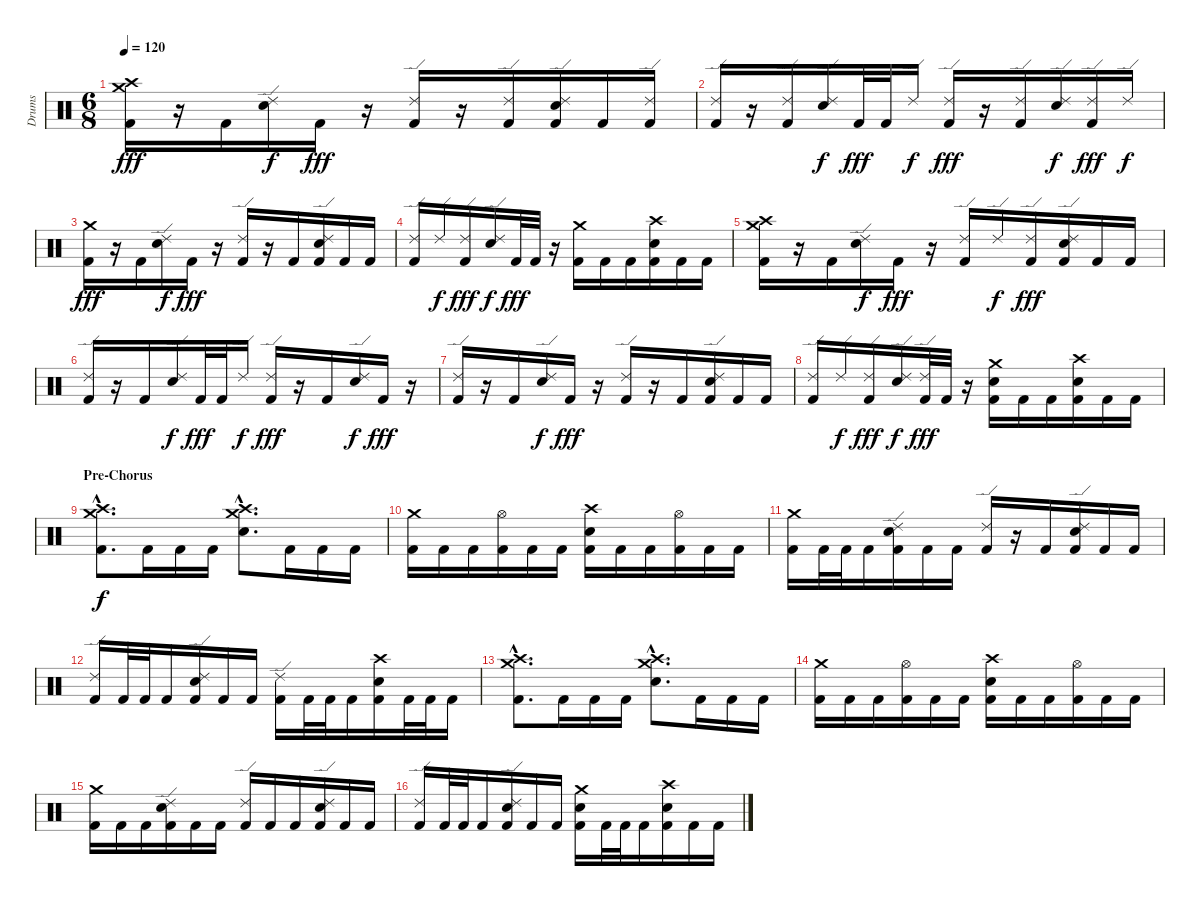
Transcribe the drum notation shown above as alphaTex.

\track ("Drums" "Drums") {instrument percussion}
\staff {score}
\articulation defaults
\ts (6 8)
\tempo 120
\clef neutral
\ks c
("Crash medium (hit)" "Crash high (hit)" "Kick (hit) 2").16{dy fff} r.16 "Kick (hit) 2".16 ("Ride (edge) 2" "Snare (hit) 2").16{dy f} "Kick (hit) 2".16{dy fff} r.16 ("Ride (edge) 2" "Kick (hit) 2").16 r.16 ("Ride (edge) 2" "Kick (hit) 2").16 ("Ride (edge) 2" "Snare (hit) 2" "Kick (hit) 2").16 "Kick (hit) 2".16 ("Ride (edge) 2" "Kick (hit) 2").16 |
("Ride (edge) 2" "Kick (hit) 2").16 r.16 ("Ride (edge) 2" "Kick (hit) 2").16 ("Ride (edge) 2" "Snare (hit) 2").16{dy f} "Kick (hit) 2".32{dy fff} "Kick (hit) 2".32 "Ride (edge) 2".16{dy f} ("Ride (edge) 2" "Kick (hit) 2").16{dy fff} r.16 ("Ride (edge) 2" "Kick (hit) 2").16 ("Ride (edge) 2" "Snare (hit) 2").16{dy f} ("Ride (edge) 2" "Kick (hit) 2").16{dy fff} "Ride (edge) 2".16{dy f} |
("Crash medium (hit)" "Kick (hit) 2").16{dy fff} r.16 "Kick (hit) 2".16 ("Ride (edge) 2" "Snare (hit) 2").16{dy f} "Kick (hit) 2".16{dy fff} r.16 ("Ride (edge) 2" "Kick (hit) 2").16 r.16 "Kick (hit) 2".16 ("Ride (edge) 2" "Snare (hit) 2" "Kick (hit) 2").16 "Kick (hit) 2".16 "Kick (hit) 2".16 |
("Ride (edge) 2" "Kick (hit) 2").16 "Ride (edge) 2".16{dy f} ("Ride (edge) 2" "Kick (hit) 2").16{dy fff} ("Ride (edge) 2" "Snare (hit) 2").16{dy f} "Kick (hit) 2".32{dy fff} "Kick (hit) 2".32 r.16 ("Crash medium (hit)" "Kick (hit) 2").16 "Kick (hit) 2".16 "Kick (hit) 2".16 ("Crash high (hit)" "Snare (hit) 2" "Kick (hit) 2").16 "Kick (hit) 2".16 "Kick (hit) 2".16 |
("Crash medium (hit)" "Crash high (hit)" "Kick (hit) 2").16 r.16 "Kick (hit) 2".16 ("Ride (edge) 2" "Snare (hit) 2").16{dy f} "Kick (hit) 2".16{dy fff} r.16 ("Ride (edge) 2" "Kick (hit) 2").16 "Ride (edge) 2".16{dy f} ("Ride (edge) 2" "Kick (hit) 2").16{dy fff} ("Ride (edge) 2" "Snare (hit) 2" "Kick (hit) 2").16 "Kick (hit) 2".16 "Kick (hit) 2".16 |
("Ride (edge) 2" "Kick (hit) 2").16 r.16 "Kick (hit) 2".16 ("Ride (edge) 2" "Snare (hit) 2").16{dy f} "Kick (hit) 2".32{dy fff} "Kick (hit) 2".32 "Ride (edge) 2".16{dy f} ("Ride (edge) 2" "Kick (hit) 2").16{dy fff} r.16 "Kick (hit) 2".16 ("Ride (edge) 2" "Snare (hit) 2").16{dy f} "Kick (hit) 2".16{dy fff} r.16 |
("Ride (edge) 2" "Kick (hit) 2").16 r.16 "Kick (hit) 2".16 ("Ride (edge) 2" "Snare (hit) 2").16{dy f} "Kick (hit) 2".16{dy fff} r.16 ("Ride (edge) 2" "Kick (hit) 2").16 r.16 "Kick (hit) 2".16 ("Ride (edge) 2" "Snare (hit) 2" "Kick (hit) 2").16 "Kick (hit) 2".16 "Kick (hit) 2".16 |
("Ride (edge) 2" "Kick (hit) 2").16 "Ride (edge) 2".16{dy f} ("Ride (edge) 2" "Kick (hit) 2").16{dy fff} ("Ride (edge) 2" "Snare (hit) 2").16{dy f} ("Ride (edge) 2" "Kick (hit) 2").32{dy fff} "Kick (hit) 2".32 r.16 ("Crash medium (hit)" "Snare (hit) 2" "Kick (hit) 2").16 "Kick (hit) 2".16 "Kick (hit) 2".16 ("Crash high (hit)" "Snare (hit) 2" "Kick (hit) 2").16 "Kick (hit) 2".16 "Kick (hit) 2".16 |
\section ("" "Pre-Chorus")
("Crash medium (hit)"{hac} "Crash high (hit)"{hac} "Kick (hit) 2"{hac}).8{d dy f} "Kick (hit) 2".16 "Kick (hit) 2".16 "Kick (hit) 2".16 ("Crash high (hit)"{hac} "Crash medium (hit)"{hac} "Snare (hit) 2"{hac}).8{d} "Kick (hit) 2".16 "Kick (hit) 2".16 "Kick (hit) 2".16 |
("Crash medium (hit)" "Kick (hit) 2").16 "Kick (hit) 2".16 "Kick (hit) 2".16 ("Hi-Hat (open)" "Kick (hit) 2").16 "Kick (hit) 2".16 "Kick (hit) 2".16 ("Crash high (hit)" "Snare (hit) 2" "Kick (hit) 2").16 "Kick (hit) 2".16 "Kick (hit) 2".16 ("Hi-Hat (open)" "Kick (hit) 2").16 "Kick (hit) 2".16 "Kick (hit) 2".16 |
("Crash medium (hit)" "Kick (hit) 2").16 "Kick (hit) 2".32 "Kick (hit) 2".32 "Kick (hit) 2".16 ("Ride (edge) 2" "Snare (hit) 2" "Kick (hit) 2").16 "Kick (hit) 2".16 "Kick (hit) 2".16 ("Ride (edge) 2" "Kick (hit) 2").16 r.16 "Kick (hit) 2".16 ("Ride (edge) 2" "Snare (hit) 2" "Kick (hit) 2").16 "Kick (hit) 2".16 "Kick (hit) 2".16 |
("Ride (edge) 2" "Kick (hit) 2").16 "Kick (hit) 2".32 "Kick (hit) 2".32 "Kick (hit) 2".16 ("Ride (edge) 2" "Snare (hit) 2" "Kick (hit) 2").16 "Kick (hit) 2".16 "Kick (hit) 2".16 ("Ride (edge) 2" "Kick (hit) 2").16 "Kick (hit) 2".32 "Kick (hit) 2".32 "Kick (hit) 2".16 ("Crash high (hit)" "Snare (hit) 2" "Kick (hit) 2").16 "Kick (hit) 2".32 "Kick (hit) 2".32 "Kick (hit) 2".16 |
("Crash medium (hit)"{hac} "Crash high (hit)"{hac} "Kick (hit) 2"{hac}).8{d} "Kick (hit) 2".16 "Kick (hit) 2".16 "Kick (hit) 2".16 ("Crash high (hit)"{hac} "Crash medium (hit)"{hac} "Snare (hit) 2"{hac}).8{d} "Kick (hit) 2".16 "Kick (hit) 2".16 "Kick (hit) 2".16 |
("Crash medium (hit)" "Kick (hit) 2").16 "Kick (hit) 2".16 "Kick (hit) 2".16 ("Hi-Hat (open)" "Kick (hit) 2").16 "Kick (hit) 2".16 "Kick (hit) 2".16 ("Crash high (hit)" "Snare (hit) 2" "Kick (hit) 2").16 "Kick (hit) 2".16 "Kick (hit) 2".16 ("Hi-Hat (open)" "Kick (hit) 2").16 "Kick (hit) 2".16 "Kick (hit) 2".16 |
("Crash medium (hit)" "Kick (hit) 2").16 "Kick (hit) 2".16 "Kick (hit) 2".16 ("Ride (edge) 2" "Snare (hit) 2" "Kick (hit) 2").16 "Kick (hit) 2".16 "Kick (hit) 2".16 ("Ride (edge) 2" "Kick (hit) 2").16 "Kick (hit) 2".16 "Kick (hit) 2".16 ("Ride (edge) 2" "Snare (hit) 2" "Kick (hit) 2").16 "Kick (hit) 2".16 "Kick (hit) 2".16 |
("Ride (edge) 2" "Kick (hit) 2").16 "Kick (hit) 2".32 "Kick (hit) 2".32 "Kick (hit) 2".16 ("Ride (edge) 2" "Snare (hit) 2" "Kick (hit) 2").16 "Kick (hit) 2".16 "Kick (hit) 2".16 ("Crash medium (hit)" "Snare (hit) 2" "Kick (hit) 2").16 "Kick (hit) 2".32 "Kick (hit) 2".32 "Kick (hit) 2".16 ("Crash high (hit)" "Snare (hit) 2" "Kick (hit) 2").16 "Kick (hit) 2".16 "Kick (hit) 2".16
